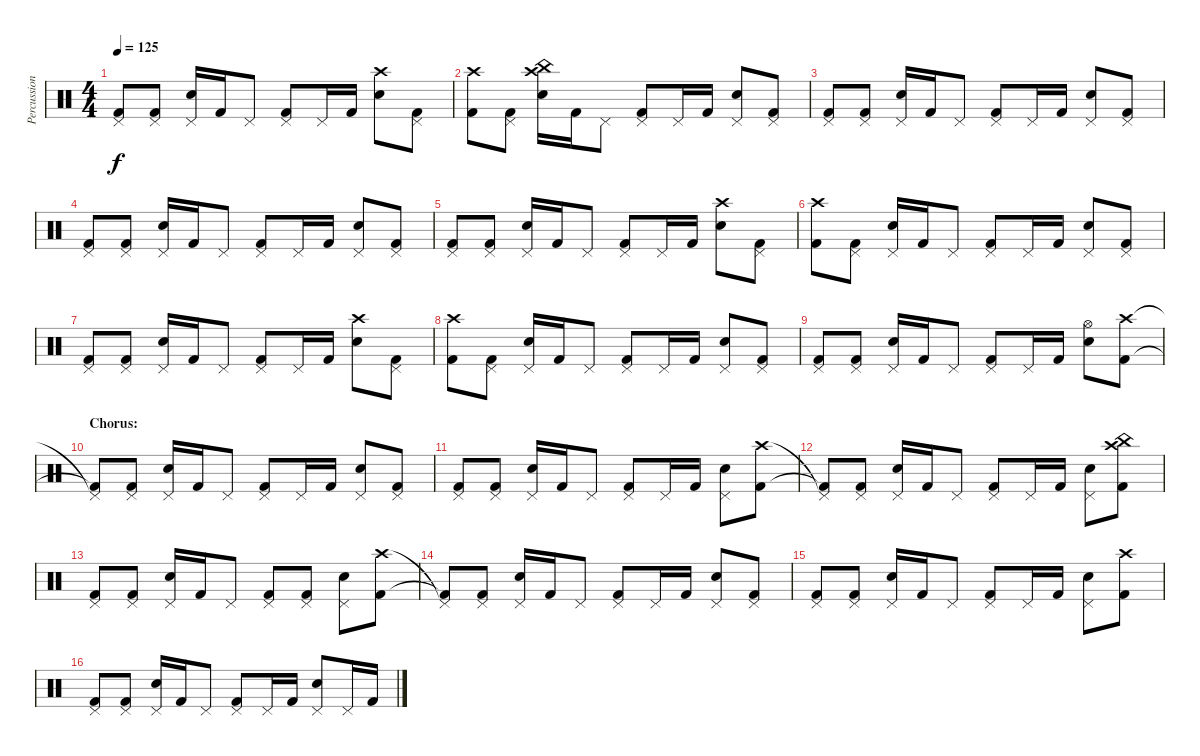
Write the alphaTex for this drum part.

\track ("Percussion" "Percussion") {instrument percussion}
\staff {score}
\articulation defaults
\ts (4 4)
\tempo 125
\clef neutral
\ks c
("Pedal Hi-Hat (hit)" "Kick (hit) 2").8{dy f} ("Pedal Hi-Hat (hit)" "Kick (hit) 2").8 ("Pedal Hi-Hat (hit)" "Electric Snare (hit)").16 "Kick (hit) 2".16 "Pedal Hi-Hat (hit)".8 ("Pedal Hi-Hat (hit)" "Kick (hit) 2").8 "Pedal Hi-Hat (hit)".16 "Kick (hit) 2".16 ("Crash high (hit)" "Electric Snare (hit)").8 ("Pedal Hi-Hat (hit)" "Kick (hit) 2").8 |
("Crash high (hit)" "Kick (hit) 2").8 ("Pedal Hi-Hat (hit)" "Kick (hit) 2").8 ("Crash high (hit)" "China (hit)" "Electric Snare (hit)").16 "Kick (hit) 2".16 "Pedal Hi-Hat (hit)".8 ("Pedal Hi-Hat (hit)" "Kick (hit) 2").8 "Pedal Hi-Hat (hit)".16 "Kick (hit) 2".16 ("Pedal Hi-Hat (hit)" "Electric Snare (hit)").8 ("Pedal Hi-Hat (hit)" "Kick (hit) 2").8 |
("Pedal Hi-Hat (hit)" "Kick (hit) 2").8 ("Pedal Hi-Hat (hit)" "Kick (hit) 2").8 ("Pedal Hi-Hat (hit)" "Electric Snare (hit)").16 "Kick (hit) 2".16 "Pedal Hi-Hat (hit)".8 ("Pedal Hi-Hat (hit)" "Kick (hit) 2").8 "Pedal Hi-Hat (hit)".16 "Kick (hit) 2".16 ("Pedal Hi-Hat (hit)" "Electric Snare (hit)").8 ("Pedal Hi-Hat (hit)" "Kick (hit) 2").8 |
("Pedal Hi-Hat (hit)" "Kick (hit) 2").8 ("Pedal Hi-Hat (hit)" "Kick (hit) 2").8 ("Pedal Hi-Hat (hit)" "Electric Snare (hit)").16 "Kick (hit) 2".16 "Pedal Hi-Hat (hit)".8 ("Pedal Hi-Hat (hit)" "Kick (hit) 2").8 "Pedal Hi-Hat (hit)".16 "Kick (hit) 2".16 ("Pedal Hi-Hat (hit)" "Electric Snare (hit)").8 ("Pedal Hi-Hat (hit)" "Kick (hit) 2").8 |
("Pedal Hi-Hat (hit)" "Kick (hit) 2").8 ("Pedal Hi-Hat (hit)" "Kick (hit) 2").8 ("Pedal Hi-Hat (hit)" "Electric Snare (hit)").16 "Kick (hit) 2".16 "Pedal Hi-Hat (hit)".8 ("Pedal Hi-Hat (hit)" "Kick (hit) 2").8 "Pedal Hi-Hat (hit)".16 "Kick (hit) 2".16 ("Crash high (hit)" "Electric Snare (hit)").8 ("Pedal Hi-Hat (hit)" "Kick (hit) 2").8 |
("Crash high (hit)" "Kick (hit) 2").8 ("Pedal Hi-Hat (hit)" "Kick (hit) 2").8 ("Pedal Hi-Hat (hit)" "Electric Snare (hit)").16 "Kick (hit) 2".16 "Pedal Hi-Hat (hit)".8 ("Pedal Hi-Hat (hit)" "Kick (hit) 2").8 "Pedal Hi-Hat (hit)".16 "Kick (hit) 2".16 ("Pedal Hi-Hat (hit)" "Electric Snare (hit)").8 ("Pedal Hi-Hat (hit)" "Kick (hit) 2").8 |
("Pedal Hi-Hat (hit)" "Kick (hit) 2").8 ("Pedal Hi-Hat (hit)" "Kick (hit) 2").8 ("Pedal Hi-Hat (hit)" "Electric Snare (hit)").16 "Kick (hit) 2".16 "Pedal Hi-Hat (hit)".8 ("Pedal Hi-Hat (hit)" "Kick (hit) 2").8 "Pedal Hi-Hat (hit)".16 "Kick (hit) 2".16 ("Crash high (hit)" "Electric Snare (hit)").8 ("Pedal Hi-Hat (hit)" "Kick (hit) 2").8 |
("Crash high (hit)" "Kick (hit) 2").8 ("Pedal Hi-Hat (hit)" "Kick (hit) 2").8 ("Pedal Hi-Hat (hit)" "Electric Snare (hit)").16 "Kick (hit) 2".16 "Pedal Hi-Hat (hit)".8 ("Pedal Hi-Hat (hit)" "Kick (hit) 2").8 "Pedal Hi-Hat (hit)".16 "Kick (hit) 2".16 ("Pedal Hi-Hat (hit)" "Electric Snare (hit)").8 ("Pedal Hi-Hat (hit)" "Kick (hit) 2").8 |
("Pedal Hi-Hat (hit)" "Kick (hit) 2").8 ("Pedal Hi-Hat (hit)" "Kick (hit) 2").8 ("Pedal Hi-Hat (hit)" "Electric Snare (hit)").16 "Kick (hit) 2".16 "Pedal Hi-Hat (hit)".8 ("Pedal Hi-Hat (hit)" "Kick (hit) 2").8 "Pedal Hi-Hat (hit)".16 "Kick (hit) 2".16 ("Hi-Hat (open)" "Electric Snare (hit)").8 ("Crash high (hit)" "Kick (hit) 2").8 |
\section ("" "Chorus:")
("Pedal Hi-Hat (hit)"{t} "Kick (hit) 2"{t}).8 ("Pedal Hi-Hat (hit)" "Kick (hit) 2").8 ("Pedal Hi-Hat (hit)" "Electric Snare (hit)").16 "Kick (hit) 2".16 "Pedal Hi-Hat (hit)".8 ("Pedal Hi-Hat (hit)" "Kick (hit) 2").8 "Pedal Hi-Hat (hit)".16 "Kick (hit) 2".16 ("Pedal Hi-Hat (hit)" "Electric Snare (hit)").8 ("Pedal Hi-Hat (hit)" "Kick (hit) 2").8 |
("Pedal Hi-Hat (hit)" "Kick (hit) 2").8 ("Pedal Hi-Hat (hit)" "Kick (hit) 2").8 ("Pedal Hi-Hat (hit)" "Electric Snare (hit)").16 "Kick (hit) 2".16 "Pedal Hi-Hat (hit)".8 ("Pedal Hi-Hat (hit)" "Kick (hit) 2").8 "Pedal Hi-Hat (hit)".16 "Kick (hit) 2".16 ("Pedal Hi-Hat (hit)" "Electric Snare (hit)").8 ("Crash high (hit)" "Kick (hit) 2").8 |
("Pedal Hi-Hat (hit)"{t} "Kick (hit) 2"{t}).8 ("Pedal Hi-Hat (hit)" "Kick (hit) 2").8 ("Pedal Hi-Hat (hit)" "Electric Snare (hit)").16 "Kick (hit) 2".16 "Pedal Hi-Hat (hit)".8 ("Pedal Hi-Hat (hit)" "Kick (hit) 2").8 "Pedal Hi-Hat (hit)".16 "Kick (hit) 2".16 ("Pedal Hi-Hat (hit)" "Electric Snare (hit)").8 ("Crash high (hit)" "China (hit)" "Kick (hit) 2").8 |
("Pedal Hi-Hat (hit)" "Kick (hit) 2").8 ("Pedal Hi-Hat (hit)" "Kick (hit) 2").8 ("Pedal Hi-Hat (hit)" "Electric Snare (hit)").16 "Kick (hit) 2".16 "Pedal Hi-Hat (hit)".8 ("Pedal Hi-Hat (hit)" "Kick (hit) 2").8 ("Pedal Hi-Hat (hit)" "Kick (hit) 2").8 ("Pedal Hi-Hat (hit)" "Electric Snare (hit)").8 ("Crash high (hit)" "Kick (hit) 2").8 |
("Pedal Hi-Hat (hit)"{t} "Kick (hit) 2"{t}).8 ("Pedal Hi-Hat (hit)" "Kick (hit) 2").8 ("Pedal Hi-Hat (hit)" "Electric Snare (hit)").16 "Kick (hit) 2".16 "Pedal Hi-Hat (hit)".8 ("Pedal Hi-Hat (hit)" "Kick (hit) 2").8 "Pedal Hi-Hat (hit)".16 "Kick (hit) 2".16 ("Pedal Hi-Hat (hit)" "Electric Snare (hit)").8 ("Pedal Hi-Hat (hit)" "Kick (hit) 2").8 |
("Pedal Hi-Hat (hit)" "Kick (hit) 2").8 ("Pedal Hi-Hat (hit)" "Kick (hit) 2").8 ("Pedal Hi-Hat (hit)" "Electric Snare (hit)").16 "Kick (hit) 2".16 "Pedal Hi-Hat (hit)".8 ("Pedal Hi-Hat (hit)" "Kick (hit) 2").8 "Pedal Hi-Hat (hit)".16 "Kick (hit) 2".16 ("Pedal Hi-Hat (hit)" "Electric Snare (hit)").8 ("Crash high (hit)" "Kick (hit) 2").8 |
("Pedal Hi-Hat (hit)" "Kick (hit) 2").8 ("Pedal Hi-Hat (hit)" "Kick (hit) 2").8 ("Pedal Hi-Hat (hit)" "Electric Snare (hit)").16 "Kick (hit) 2".16 "Pedal Hi-Hat (hit)".8 ("Pedal Hi-Hat (hit)" "Kick (hit) 2").8 "Pedal Hi-Hat (hit)".16 "Kick (hit) 2".16 ("Pedal Hi-Hat (hit)" "Electric Snare (hit)").8 "Pedal Hi-Hat (hit)".16 "Kick (hit) 2".16
